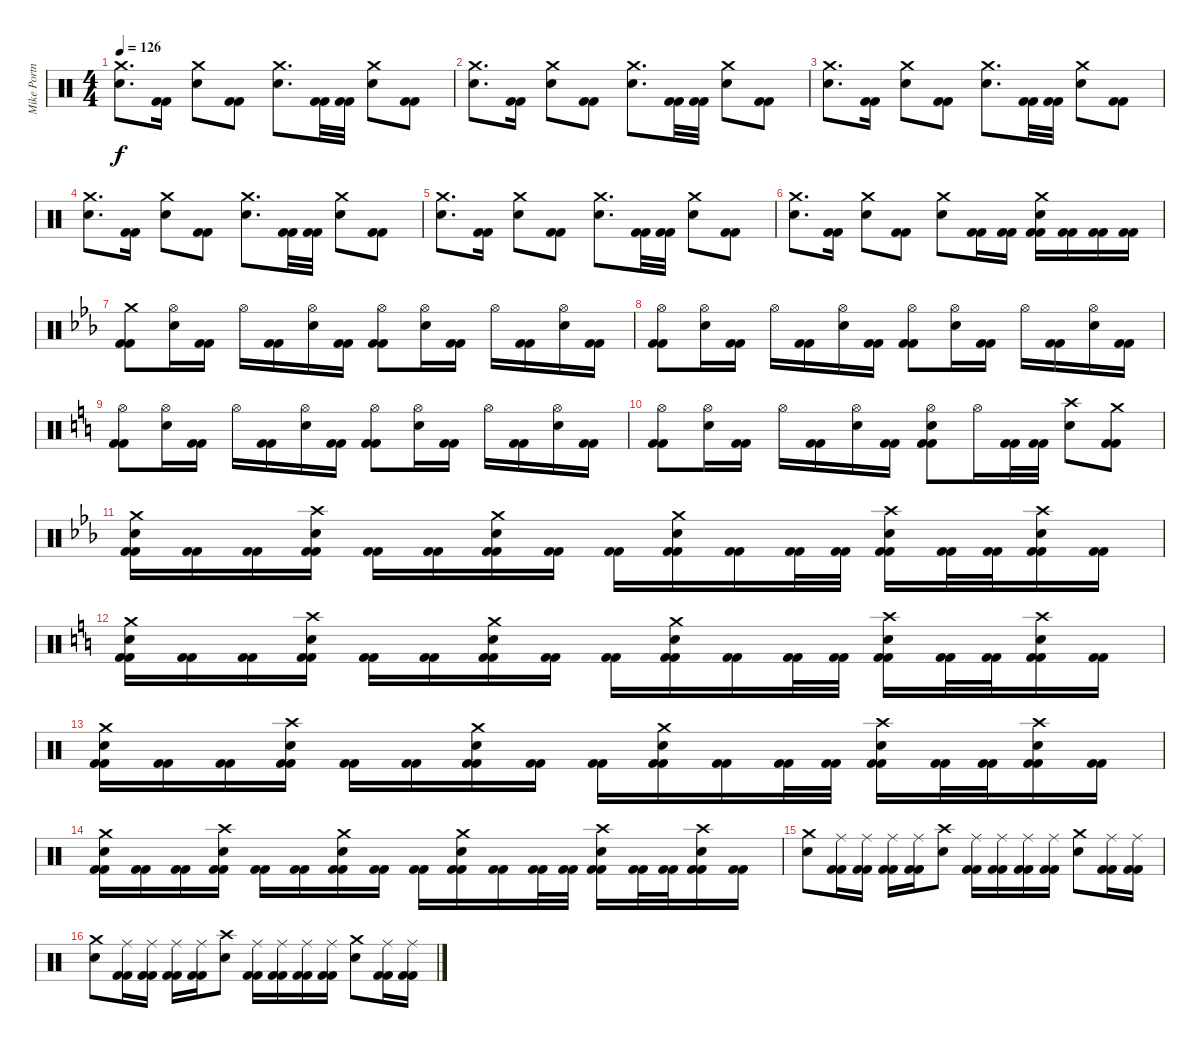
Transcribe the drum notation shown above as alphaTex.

\track ("Mike Portnoy" "Mike Portn") {instrument percussion}
\staff {score}
\articulation defaults
\ts (4 4)
\tempo 126
\clef neutral
\ks c
("Crash medium (hit)" "Electric Snare (hit)").8{d dy f} ("Kick (hit) 2" "Kick (hit) 2").16 ("Crash medium (hit)" "Electric Snare (hit)").8 ("Kick (hit) 2" "Kick (hit) 2").8 ("Crash medium (hit)" "Electric Snare (hit)").8{d} ("Kick (hit) 2" "Kick (hit) 2").32 ("Kick (hit) 2" "Kick (hit) 2").32 ("Crash medium (hit)" "Electric Snare (hit)").8 ("Kick (hit) 2" "Kick (hit) 2").8 |
("Crash medium (hit)" "Electric Snare (hit)").8{d} ("Kick (hit) 2" "Kick (hit) 2").16 ("Crash medium (hit)" "Electric Snare (hit)").8 ("Kick (hit) 2" "Kick (hit) 2").8 ("Crash medium (hit)" "Electric Snare (hit)").8{d} ("Kick (hit) 2" "Kick (hit) 2").32 ("Kick (hit) 2" "Kick (hit) 2").32 ("Crash medium (hit)" "Electric Snare (hit)").8 ("Kick (hit) 2" "Kick (hit) 2").8 |
("Crash medium (hit)" "Electric Snare (hit)").8{d} ("Kick (hit) 2" "Kick (hit) 2").16 ("Crash medium (hit)" "Electric Snare (hit)").8 ("Kick (hit) 2" "Kick (hit) 2").8 ("Crash medium (hit)" "Electric Snare (hit)").8{d} ("Kick (hit) 2" "Kick (hit) 2").32 ("Kick (hit) 2" "Kick (hit) 2").32 ("Crash medium (hit)" "Electric Snare (hit)").8 ("Kick (hit) 2" "Kick (hit) 2").8 |
("Crash medium (hit)" "Electric Snare (hit)").8{d} ("Kick (hit) 2" "Kick (hit) 2").16 ("Crash medium (hit)" "Electric Snare (hit)").8 ("Kick (hit) 2" "Kick (hit) 2").8 ("Crash medium (hit)" "Electric Snare (hit)").8{d} ("Kick (hit) 2" "Kick (hit) 2").32 ("Kick (hit) 2" "Kick (hit) 2").32 ("Crash medium (hit)" "Electric Snare (hit)").8 ("Kick (hit) 2" "Kick (hit) 2").8 |
("Crash medium (hit)" "Electric Snare (hit)").8{d} ("Kick (hit) 2" "Kick (hit) 2").16 ("Crash medium (hit)" "Electric Snare (hit)").8 ("Kick (hit) 2" "Kick (hit) 2").8 ("Crash medium (hit)" "Electric Snare (hit)").8{d} ("Kick (hit) 2" "Kick (hit) 2").32 ("Kick (hit) 2" "Kick (hit) 2").32 ("Crash medium (hit)" "Electric Snare (hit)").8 ("Kick (hit) 2" "Kick (hit) 2").8 |
("Crash medium (hit)" "Electric Snare (hit)").8{d} ("Kick (hit) 2" "Kick (hit) 2").16 ("Crash medium (hit)" "Electric Snare (hit)").8 ("Kick (hit) 2" "Kick (hit) 2").8 ("Crash medium (hit)" "Electric Snare (hit)").8 ("Kick (hit) 2" "Kick (hit) 2").16 ("Kick (hit) 2" "Kick (hit) 2").16 ("Crash medium (hit)" "Electric Snare (hit)" "Kick (hit) 2" "Kick (hit) 2").16 ("Kick (hit) 2" "Kick (hit) 2").16 ("Kick (hit) 2" "Kick (hit) 2").16 ("Kick (hit) 2" "Kick (hit) 2").16 |
\ks cminor
("Crash medium (hit)" "Kick (hit) 2" "Kick (hit) 2").8 ("Hi-Hat (open)" "Electric Snare (hit)").16 ("Kick (hit) 2" "Kick (hit) 2").16 "Hi-Hat (open)".16 ("Kick (hit) 2" "Kick (hit) 2").16 ("Hi-Hat (open)" "Electric Snare (hit)").16 ("Kick (hit) 2" "Kick (hit) 2").16 ("Hi-Hat (open)" "Kick (hit) 2" "Kick (hit) 2").8 ("Hi-Hat (open)" "Electric Snare (hit)").16 ("Kick (hit) 2" "Kick (hit) 2").16 "Hi-Hat (open)".16 ("Kick (hit) 2" "Kick (hit) 2").16 ("Hi-Hat (open)" "Electric Snare (hit)").16 ("Kick (hit) 2" "Kick (hit) 2").16 |
("Hi-Hat (open)" "Kick (hit) 2" "Kick (hit) 2").8 ("Hi-Hat (open)" "Electric Snare (hit)").16 ("Kick (hit) 2" "Kick (hit) 2").16 "Hi-Hat (open)".16 ("Kick (hit) 2" "Kick (hit) 2").16 ("Hi-Hat (open)" "Electric Snare (hit)").16 ("Kick (hit) 2" "Kick (hit) 2").16 ("Hi-Hat (open)" "Kick (hit) 2" "Kick (hit) 2").8 ("Hi-Hat (open)" "Electric Snare (hit)").16 ("Kick (hit) 2" "Kick (hit) 2").16 "Hi-Hat (open)".16 ("Kick (hit) 2" "Kick (hit) 2").16 ("Hi-Hat (open)" "Electric Snare (hit)").16 ("Kick (hit) 2" "Kick (hit) 2").16 |
\ks c
("Hi-Hat (open)" "Kick (hit) 2" "Kick (hit) 2").8 ("Hi-Hat (open)" "Electric Snare (hit)").16 ("Kick (hit) 2" "Kick (hit) 2").16 "Hi-Hat (open)".16 ("Kick (hit) 2" "Kick (hit) 2").16 ("Hi-Hat (open)" "Electric Snare (hit)").16 ("Kick (hit) 2" "Kick (hit) 2").16 ("Hi-Hat (open)" "Kick (hit) 2" "Kick (hit) 2").8 ("Hi-Hat (open)" "Electric Snare (hit)").16 ("Kick (hit) 2" "Kick (hit) 2").16 "Hi-Hat (open)".16 ("Kick (hit) 2" "Kick (hit) 2").16 ("Hi-Hat (open)" "Electric Snare (hit)").16 ("Kick (hit) 2" "Kick (hit) 2").16 |
("Hi-Hat (open)" "Kick (hit) 2" "Kick (hit) 2").8 ("Hi-Hat (open)" "Electric Snare (hit)").16 ("Kick (hit) 2" "Kick (hit) 2").16 "Hi-Hat (open)".16 ("Kick (hit) 2" "Kick (hit) 2").16 ("Hi-Hat (open)" "Electric Snare (hit)").16 ("Kick (hit) 2" "Kick (hit) 2").16 ("Hi-Hat (open)" "Electric Snare (hit)" "Kick (hit) 2" "Kick (hit) 2").8 "Hi-Hat (open)".16 ("Kick (hit) 2" "Kick (hit) 2").32 ("Kick (hit) 2" "Kick (hit) 2").32 ("Crash high (hit)" "Electric Snare (hit)").8 ("Crash medium (hit)" "Kick (hit) 2" "Kick (hit) 2").8 |
\ks cminor
("Crash medium (hit)" "Electric Snare (hit)" "Kick (hit) 2" "Kick (hit) 2").16 ("Kick (hit) 2" "Kick (hit) 2").16 ("Kick (hit) 2" "Kick (hit) 2").16 ("Crash high (hit)" "Electric Snare (hit)" "Kick (hit) 2" "Kick (hit) 2").16 ("Kick (hit) 2" "Kick (hit) 2").16 ("Kick (hit) 2" "Kick (hit) 2").16 ("Crash medium (hit)" "Electric Snare (hit)" "Kick (hit) 2" "Kick (hit) 2").16 ("Kick (hit) 2" "Kick (hit) 2").16 ("Kick (hit) 2" "Kick (hit) 2").16 ("Crash medium (hit)" "Electric Snare (hit)" "Kick (hit) 2" "Kick (hit) 2").16 ("Kick (hit) 2" "Kick (hit) 2").16 ("Kick (hit) 2" "Kick (hit) 2").32 ("Kick (hit) 2" "Kick (hit) 2").32 ("Crash high (hit)" "Electric Snare (hit)" "Kick (hit) 2" "Kick (hit) 2").16 ("Kick (hit) 2" "Kick (hit) 2").32 ("Kick (hit) 2" "Kick (hit) 2").32 ("Crash high (hit)" "Electric Snare (hit)" "Kick (hit) 2" "Kick (hit) 2").16 ("Kick (hit) 2" "Kick (hit) 2").16 |
\ks c
("Crash medium (hit)" "Electric Snare (hit)" "Kick (hit) 2" "Kick (hit) 2").16 ("Kick (hit) 2" "Kick (hit) 2").16 ("Kick (hit) 2" "Kick (hit) 2").16 ("Crash high (hit)" "Electric Snare (hit)" "Kick (hit) 2" "Kick (hit) 2").16 ("Kick (hit) 2" "Kick (hit) 2").16 ("Kick (hit) 2" "Kick (hit) 2").16 ("Crash medium (hit)" "Electric Snare (hit)" "Kick (hit) 2" "Kick (hit) 2").16 ("Kick (hit) 2" "Kick (hit) 2").16 ("Kick (hit) 2" "Kick (hit) 2").16 ("Crash medium (hit)" "Electric Snare (hit)" "Kick (hit) 2" "Kick (hit) 2").16 ("Kick (hit) 2" "Kick (hit) 2").16 ("Kick (hit) 2" "Kick (hit) 2").32 ("Kick (hit) 2" "Kick (hit) 2").32 ("Crash high (hit)" "Electric Snare (hit)" "Kick (hit) 2" "Kick (hit) 2").16 ("Kick (hit) 2" "Kick (hit) 2").32 ("Kick (hit) 2" "Kick (hit) 2").32 ("Crash high (hit)" "Electric Snare (hit)" "Kick (hit) 2" "Kick (hit) 2").16 ("Kick (hit) 2" "Kick (hit) 2").16 |
("Crash medium (hit)" "Electric Snare (hit)" "Kick (hit) 2" "Kick (hit) 2").16 ("Kick (hit) 2" "Kick (hit) 2").16 ("Kick (hit) 2" "Kick (hit) 2").16 ("Crash high (hit)" "Electric Snare (hit)" "Kick (hit) 2" "Kick (hit) 2").16 ("Kick (hit) 2" "Kick (hit) 2").16 ("Kick (hit) 2" "Kick (hit) 2").16 ("Crash medium (hit)" "Electric Snare (hit)" "Kick (hit) 2" "Kick (hit) 2").16 ("Kick (hit) 2" "Kick (hit) 2").16 ("Kick (hit) 2" "Kick (hit) 2").16 ("Crash medium (hit)" "Electric Snare (hit)" "Kick (hit) 2" "Kick (hit) 2").16 ("Kick (hit) 2" "Kick (hit) 2").16 ("Kick (hit) 2" "Kick (hit) 2").32 ("Kick (hit) 2" "Kick (hit) 2").32 ("Crash high (hit)" "Electric Snare (hit)" "Kick (hit) 2" "Kick (hit) 2").16 ("Kick (hit) 2" "Kick (hit) 2").32 ("Kick (hit) 2" "Kick (hit) 2").32 ("Crash high (hit)" "Electric Snare (hit)" "Kick (hit) 2" "Kick (hit) 2").16 ("Kick (hit) 2" "Kick (hit) 2").16 |
("Crash medium (hit)" "Electric Snare (hit)" "Kick (hit) 2" "Kick (hit) 2").16 ("Kick (hit) 2" "Kick (hit) 2").16 ("Kick (hit) 2" "Kick (hit) 2").16 ("Crash high (hit)" "Electric Snare (hit)" "Kick (hit) 2" "Kick (hit) 2").16 ("Kick (hit) 2" "Kick (hit) 2").16 ("Kick (hit) 2" "Kick (hit) 2").16 ("Crash medium (hit)" "Electric Snare (hit)" "Kick (hit) 2" "Kick (hit) 2").16 ("Kick (hit) 2" "Kick (hit) 2").16 ("Kick (hit) 2" "Kick (hit) 2").16 ("Crash medium (hit)" "Electric Snare (hit)" "Kick (hit) 2" "Kick (hit) 2").16 ("Kick (hit) 2" "Kick (hit) 2").16 ("Kick (hit) 2" "Kick (hit) 2").32 ("Kick (hit) 2" "Kick (hit) 2").32 ("Crash high (hit)" "Electric Snare (hit)" "Kick (hit) 2" "Kick (hit) 2").16 ("Kick (hit) 2" "Kick (hit) 2").32 ("Kick (hit) 2" "Kick (hit) 2").32 ("Crash high (hit)" "Electric Snare (hit)" "Kick (hit) 2" "Kick (hit) 2").16 ("Kick (hit) 2" "Kick (hit) 2").16 |
("Crash medium (hit)" "Electric Snare (hit)").8 ("Ride (middle)" "Kick (hit) 2" "Kick (hit) 2").16 ("Ride (middle)" "Kick (hit) 2" "Kick (hit) 2").16 ("Ride (middle)" "Kick (hit) 2" "Kick (hit) 2").16 ("Ride (middle)" "Kick (hit) 2" "Kick (hit) 2").16 ("Crash high (hit)" "Electric Snare (hit)").8 ("Ride (middle)" "Kick (hit) 2" "Kick (hit) 2").16 ("Ride (middle)" "Kick (hit) 2" "Kick (hit) 2").16 ("Ride (middle)" "Kick (hit) 2" "Kick (hit) 2").16 ("Ride (middle)" "Kick (hit) 2" "Kick (hit) 2").16 ("Crash medium (hit)" "Electric Snare (hit)").8 ("Ride (middle)" "Kick (hit) 2" "Kick (hit) 2").16 ("Ride (middle)" "Kick (hit) 2" "Kick (hit) 2").16 |
("Crash medium (hit)" "Electric Snare (hit)").8 ("Ride (middle)" "Kick (hit) 2" "Kick (hit) 2").16 ("Ride (middle)" "Kick (hit) 2" "Kick (hit) 2").16 ("Ride (middle)" "Kick (hit) 2" "Kick (hit) 2").16 ("Ride (middle)" "Kick (hit) 2" "Kick (hit) 2").16 ("Crash high (hit)" "Electric Snare (hit)").8 ("Ride (middle)" "Kick (hit) 2" "Kick (hit) 2").16 ("Ride (middle)" "Kick (hit) 2" "Kick (hit) 2").16 ("Ride (middle)" "Kick (hit) 2" "Kick (hit) 2").16 ("Ride (middle)" "Kick (hit) 2" "Kick (hit) 2").16 ("Crash medium (hit)" "Electric Snare (hit)").8 ("Ride (middle)" "Kick (hit) 2" "Kick (hit) 2").16 ("Ride (middle)" "Kick (hit) 2" "Kick (hit) 2").16
